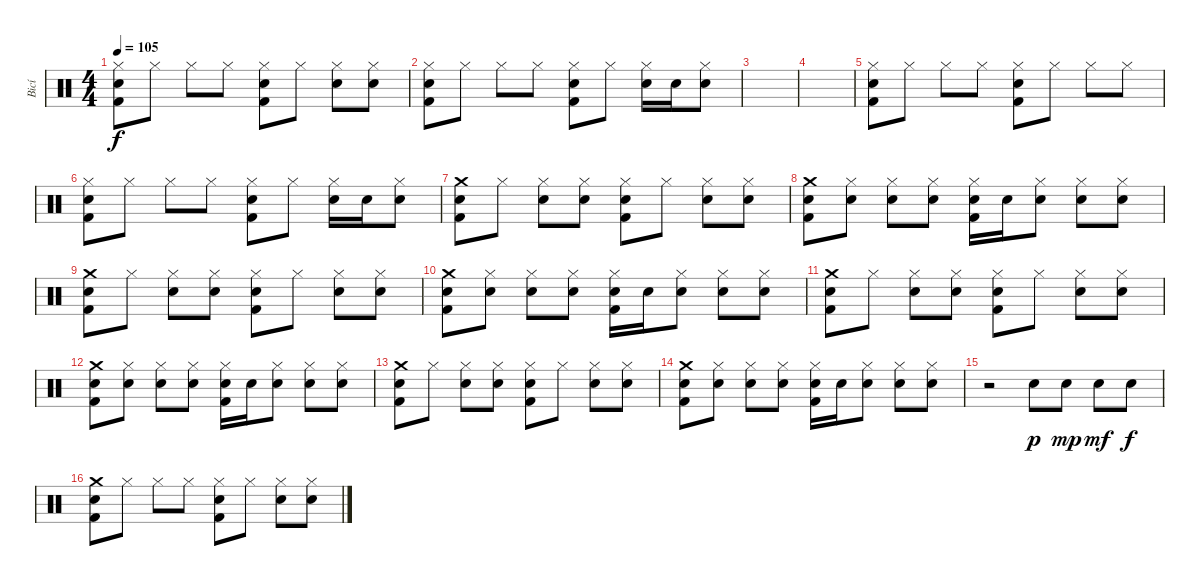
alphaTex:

\track ("Bicí" "Bicí") {instrument percussion}
\staff {score}
\articulation defaults
\ts (4 4)
\tempo 105
\clef neutral
\ks c
("Hi-Hat (closed)" "Electric Snare (hit)" "Kick (hit) 2").8{dy f} "Hi-Hat (closed)".8 "Hi-Hat (closed)".8 "Hi-Hat (closed)".8 ("Hi-Hat (closed)" "Electric Snare (hit)" "Kick (hit) 2").8 "Hi-Hat (closed)".8 ("Hi-Hat (closed)" "Electric Snare (hit)").8 ("Hi-Hat (closed)" "Electric Snare (hit)").8 |
("Hi-Hat (closed)" "Electric Snare (hit)" "Kick (hit) 2").8 "Hi-Hat (closed)".8 "Hi-Hat (closed)".8 "Hi-Hat (closed)".8 ("Hi-Hat (closed)" "Electric Snare (hit)" "Kick (hit) 2").8 "Hi-Hat (closed)".8 ("Hi-Hat (closed)" "Electric Snare (hit)").16 "Electric Snare (hit)".16 ("Hi-Hat (closed)" "Electric Snare (hit)").8 |
|
|
("Hi-Hat (closed)" "Electric Snare (hit)" "Kick (hit) 2").8 "Hi-Hat (closed)".8 "Hi-Hat (closed)".8 "Hi-Hat (closed)".8 ("Hi-Hat (closed)" "Electric Snare (hit)" "Kick (hit) 2").8 "Hi-Hat (closed)".8 "Hi-Hat (closed)".8 "Hi-Hat (closed)".8 |
("Hi-Hat (closed)" "Electric Snare (hit)" "Kick (hit) 2").8 "Hi-Hat (closed)".8 "Hi-Hat (closed)".8 "Hi-Hat (closed)".8 ("Hi-Hat (closed)" "Electric Snare (hit)" "Kick (hit) 2").8 "Hi-Hat (closed)".8 ("Hi-Hat (closed)" "Electric Snare (hit)").16 "Electric Snare (hit)".16 ("Hi-Hat (closed)" "Electric Snare (hit)").8 |
("Crash medium (hit)" "Electric Snare (hit)" "Kick (hit) 2").8 "Hi-Hat (closed)".8 ("Hi-Hat (closed)" "Electric Snare (hit)").8 ("Hi-Hat (closed)" "Electric Snare (hit)").8 ("Hi-Hat (closed)" "Electric Snare (hit)" "Kick (hit) 2").8 "Hi-Hat (closed)".8 ("Hi-Hat (closed)" "Electric Snare (hit)").8 ("Hi-Hat (closed)" "Electric Snare (hit)").8 |
("Crash medium (hit)" "Electric Snare (hit)" "Kick (hit) 2").8 ("Hi-Hat (closed)" "Electric Snare (hit)").8 ("Hi-Hat (closed)" "Electric Snare (hit)").8 ("Hi-Hat (closed)" "Electric Snare (hit)").8 ("Hi-Hat (closed)" "Electric Snare (hit)" "Kick (hit) 2").16 "Electric Snare (hit)".16 ("Hi-Hat (closed)" "Electric Snare (hit)").8 ("Hi-Hat (closed)" "Electric Snare (hit)").8 ("Hi-Hat (closed)" "Electric Snare (hit)").8 |
("Crash medium (hit)" "Electric Snare (hit)" "Kick (hit) 2").8 "Hi-Hat (closed)".8 ("Hi-Hat (closed)" "Electric Snare (hit)").8 ("Hi-Hat (closed)" "Electric Snare (hit)").8 ("Hi-Hat (closed)" "Electric Snare (hit)" "Kick (hit) 2").8 "Hi-Hat (closed)".8 ("Hi-Hat (closed)" "Electric Snare (hit)").8 ("Hi-Hat (closed)" "Electric Snare (hit)").8 |
("Crash medium (hit)" "Electric Snare (hit)" "Kick (hit) 2").8 ("Hi-Hat (closed)" "Electric Snare (hit)").8 ("Hi-Hat (closed)" "Electric Snare (hit)").8 ("Hi-Hat (closed)" "Electric Snare (hit)").8 ("Hi-Hat (closed)" "Electric Snare (hit)" "Kick (hit) 2").16 "Electric Snare (hit)".16 ("Hi-Hat (closed)" "Electric Snare (hit)").8 ("Hi-Hat (closed)" "Electric Snare (hit)").8 ("Hi-Hat (closed)" "Electric Snare (hit)").8 |
("Crash medium (hit)" "Electric Snare (hit)" "Kick (hit) 2").8 "Hi-Hat (closed)".8 ("Hi-Hat (closed)" "Electric Snare (hit)").8 ("Hi-Hat (closed)" "Electric Snare (hit)").8 ("Hi-Hat (closed)" "Electric Snare (hit)" "Kick (hit) 2").8 "Hi-Hat (closed)".8 ("Hi-Hat (closed)" "Electric Snare (hit)").8 ("Hi-Hat (closed)" "Electric Snare (hit)").8 |
("Crash medium (hit)" "Electric Snare (hit)" "Kick (hit) 2").8 ("Hi-Hat (closed)" "Electric Snare (hit)").8 ("Hi-Hat (closed)" "Electric Snare (hit)").8 ("Hi-Hat (closed)" "Electric Snare (hit)").8 ("Hi-Hat (closed)" "Electric Snare (hit)" "Kick (hit) 2").16 "Electric Snare (hit)".16 ("Hi-Hat (closed)" "Electric Snare (hit)").8 ("Hi-Hat (closed)" "Electric Snare (hit)").8 ("Hi-Hat (closed)" "Electric Snare (hit)").8 |
("Crash medium (hit)" "Electric Snare (hit)" "Kick (hit) 2").8 "Hi-Hat (closed)".8 ("Hi-Hat (closed)" "Electric Snare (hit)").8 ("Hi-Hat (closed)" "Electric Snare (hit)").8 ("Hi-Hat (closed)" "Electric Snare (hit)" "Kick (hit) 2").8 "Hi-Hat (closed)".8 ("Hi-Hat (closed)" "Electric Snare (hit)").8 ("Hi-Hat (closed)" "Electric Snare (hit)").8 |
("Crash medium (hit)" "Electric Snare (hit)" "Kick (hit) 2").8 ("Hi-Hat (closed)" "Electric Snare (hit)").8 ("Hi-Hat (closed)" "Electric Snare (hit)").8 ("Hi-Hat (closed)" "Electric Snare (hit)").8 ("Hi-Hat (closed)" "Electric Snare (hit)" "Kick (hit) 2").16 "Electric Snare (hit)".16 ("Hi-Hat (closed)" "Electric Snare (hit)").8 ("Hi-Hat (closed)" "Electric Snare (hit)").8 ("Hi-Hat (closed)" "Electric Snare (hit)").8 |
r.2 "Electric Snare (hit)".8{dy p} "Electric Snare (hit)".8{dy mp} "Electric Snare (hit)".8{dy mf} "Electric Snare (hit)".8{dy f} |
("Crash medium (hit)" "Electric Snare (hit)" "Kick (hit) 2").8 "Hi-Hat (closed)".8 "Hi-Hat (closed)".8 "Hi-Hat (closed)".8 ("Hi-Hat (closed)" "Electric Snare (hit)" "Kick (hit) 2").8 "Hi-Hat (closed)".8 ("Hi-Hat (closed)" "Electric Snare (hit)").8 ("Hi-Hat (closed)" "Electric Snare (hit)").8
